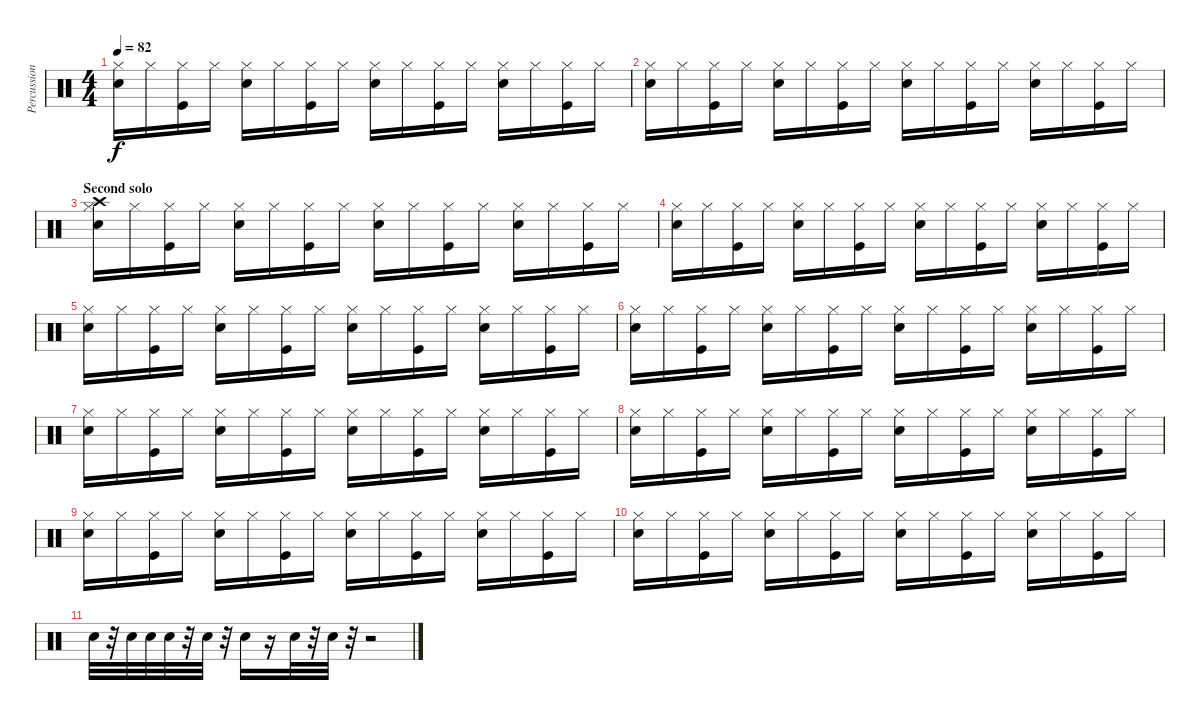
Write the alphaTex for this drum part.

\track ("Percussion" "Percussion") {instrument percussion}
\staff {score}
\articulation defaults
\ts (4 4)
\tempo 82
\clef neutral
\ks c
("Hi-Hat (closed)" "Snare (hit) 2").16{dy f} "Hi-Hat (closed)".16 ("Hi-Hat (closed)" "Kick (hit)").16 "Hi-Hat (closed)".16 ("Hi-Hat (closed)" "Snare (hit) 2").16 "Hi-Hat (closed)".16 ("Hi-Hat (closed)" "Kick (hit)").16 "Hi-Hat (closed)".16 ("Hi-Hat (closed)" "Snare (hit) 2").16 "Hi-Hat (closed)".16 ("Hi-Hat (closed)" "Kick (hit)").16 "Hi-Hat (closed)".16 ("Hi-Hat (closed)" "Snare (hit) 2").16 "Hi-Hat (closed)".16 ("Hi-Hat (closed)" "Kick (hit)").16 "Hi-Hat (closed)".16 |
("Hi-Hat (closed)" "Snare (hit) 2").16 "Hi-Hat (closed)".16 ("Hi-Hat (closed)" "Kick (hit)").16 "Hi-Hat (closed)".16 ("Hi-Hat (closed)" "Snare (hit) 2").16 "Hi-Hat (closed)".16 ("Hi-Hat (closed)" "Kick (hit)").16 "Hi-Hat (closed)".16 ("Hi-Hat (closed)" "Snare (hit) 2").16 "Hi-Hat (closed)".16 ("Hi-Hat (closed)" "Kick (hit)").16 "Hi-Hat (closed)".16 ("Hi-Hat (closed)" "Snare (hit) 2").16 "Hi-Hat (closed)".16 ("Hi-Hat (closed)" "Kick (hit)").16 "Hi-Hat (closed)".16 |
\section ("" "Second solo")
("Hi-Hat (closed)" "Crash high (hit)" "Electric Snare (hit)").16 "Hi-Hat (closed)".16 ("Hi-Hat (closed)" "Kick (hit)").16 "Hi-Hat (closed)".16 ("Hi-Hat (closed)" "Snare (hit) 2").16 "Hi-Hat (closed)".16 ("Hi-Hat (closed)" "Kick (hit)").16 "Hi-Hat (closed)".16 ("Hi-Hat (closed)" "Snare (hit) 2").16 "Hi-Hat (closed)".16 ("Hi-Hat (closed)" "Kick (hit)").16 "Hi-Hat (closed)".16 ("Hi-Hat (closed)" "Snare (hit) 2").16 "Hi-Hat (closed)".16 ("Hi-Hat (closed)" "Kick (hit)").16 "Hi-Hat (closed)".16 |
("Hi-Hat (closed)" "Snare (hit) 2").16 "Hi-Hat (closed)".16 ("Hi-Hat (closed)" "Kick (hit)").16 "Hi-Hat (closed)".16 ("Hi-Hat (closed)" "Snare (hit) 2").16 "Hi-Hat (closed)".16 ("Hi-Hat (closed)" "Kick (hit)").16 "Hi-Hat (closed)".16 ("Hi-Hat (closed)" "Snare (hit) 2").16 "Hi-Hat (closed)".16 ("Hi-Hat (closed)" "Kick (hit)").16 "Hi-Hat (closed)".16 ("Hi-Hat (closed)" "Snare (hit) 2").16 "Hi-Hat (closed)".16 ("Hi-Hat (closed)" "Kick (hit)").16 "Hi-Hat (closed)".16 |
("Hi-Hat (closed)" "Snare (hit) 2").16 "Hi-Hat (closed)".16 ("Hi-Hat (closed)" "Kick (hit)").16 "Hi-Hat (closed)".16 ("Hi-Hat (closed)" "Snare (hit) 2").16 "Hi-Hat (closed)".16 ("Hi-Hat (closed)" "Kick (hit)").16 "Hi-Hat (closed)".16 ("Hi-Hat (closed)" "Snare (hit) 2").16 "Hi-Hat (closed)".16 ("Hi-Hat (closed)" "Kick (hit)").16 "Hi-Hat (closed)".16 ("Hi-Hat (closed)" "Snare (hit) 2").16 "Hi-Hat (closed)".16 ("Hi-Hat (closed)" "Kick (hit)").16 "Hi-Hat (closed)".16 |
("Hi-Hat (closed)" "Snare (hit) 2").16 "Hi-Hat (closed)".16 ("Hi-Hat (closed)" "Kick (hit)").16 "Hi-Hat (closed)".16 ("Hi-Hat (closed)" "Snare (hit) 2").16 "Hi-Hat (closed)".16 ("Hi-Hat (closed)" "Kick (hit)").16 "Hi-Hat (closed)".16 ("Hi-Hat (closed)" "Snare (hit) 2").16 "Hi-Hat (closed)".16 ("Hi-Hat (closed)" "Kick (hit)").16 "Hi-Hat (closed)".16 ("Hi-Hat (closed)" "Snare (hit) 2").16 "Hi-Hat (closed)".16 ("Hi-Hat (closed)" "Kick (hit)").16 "Hi-Hat (closed)".16 |
("Hi-Hat (closed)" "Snare (hit) 2").16 "Hi-Hat (closed)".16 ("Hi-Hat (closed)" "Kick (hit)").16 "Hi-Hat (closed)".16 ("Hi-Hat (closed)" "Snare (hit) 2").16 "Hi-Hat (closed)".16 ("Hi-Hat (closed)" "Kick (hit)").16 "Hi-Hat (closed)".16 ("Hi-Hat (closed)" "Snare (hit) 2").16 "Hi-Hat (closed)".16 ("Hi-Hat (closed)" "Kick (hit)").16 "Hi-Hat (closed)".16 ("Hi-Hat (closed)" "Snare (hit) 2").16 "Hi-Hat (closed)".16 ("Hi-Hat (closed)" "Kick (hit)").16 "Hi-Hat (closed)".16 |
("Hi-Hat (closed)" "Snare (hit) 2").16 "Hi-Hat (closed)".16 ("Hi-Hat (closed)" "Kick (hit)").16 "Hi-Hat (closed)".16 ("Hi-Hat (closed)" "Snare (hit) 2").16 "Hi-Hat (closed)".16 ("Hi-Hat (closed)" "Kick (hit)").16 "Hi-Hat (closed)".16 ("Hi-Hat (closed)" "Snare (hit) 2").16 "Hi-Hat (closed)".16 ("Hi-Hat (closed)" "Kick (hit)").16 "Hi-Hat (closed)".16 ("Hi-Hat (closed)" "Snare (hit) 2").16 "Hi-Hat (closed)".16 ("Hi-Hat (closed)" "Kick (hit)").16 "Hi-Hat (closed)".16 |
("Hi-Hat (closed)" "Snare (hit) 2").16 "Hi-Hat (closed)".16 ("Hi-Hat (closed)" "Kick (hit)").16 "Hi-Hat (closed)".16 ("Hi-Hat (closed)" "Snare (hit) 2").16 "Hi-Hat (closed)".16 ("Hi-Hat (closed)" "Kick (hit)").16 "Hi-Hat (closed)".16 ("Hi-Hat (closed)" "Snare (hit) 2").16 "Hi-Hat (closed)".16 ("Hi-Hat (closed)" "Kick (hit)").16 "Hi-Hat (closed)".16 ("Hi-Hat (closed)" "Snare (hit) 2").16 "Hi-Hat (closed)".16 ("Hi-Hat (closed)" "Kick (hit)").16 "Hi-Hat (closed)".16 |
("Hi-Hat (closed)" "Snare (hit) 2").16 "Hi-Hat (closed)".16 ("Hi-Hat (closed)" "Kick (hit)").16 "Hi-Hat (closed)".16 ("Hi-Hat (closed)" "Snare (hit) 2").16 "Hi-Hat (closed)".16 ("Hi-Hat (closed)" "Kick (hit)").16 "Hi-Hat (closed)".16 ("Hi-Hat (closed)" "Snare (hit) 2").16 "Hi-Hat (closed)".16 ("Hi-Hat (closed)" "Kick (hit)").16 "Hi-Hat (closed)".16 ("Hi-Hat (closed)" "Snare (hit) 2").16 "Hi-Hat (closed)".16 ("Hi-Hat (closed)" "Kick (hit)").16 "Hi-Hat (closed)".16 |
"Snare (hit) 2".32 r.32 "Snare (hit) 2".32 "Snare (hit) 2".32 "Snare (hit) 2".32 r.32 "Snare (hit) 2".32 r.32 "Snare (hit) 2".16 r.16 "Snare (hit) 2".32 r.32 "Snare (hit) 2".32 r.32 r.2
